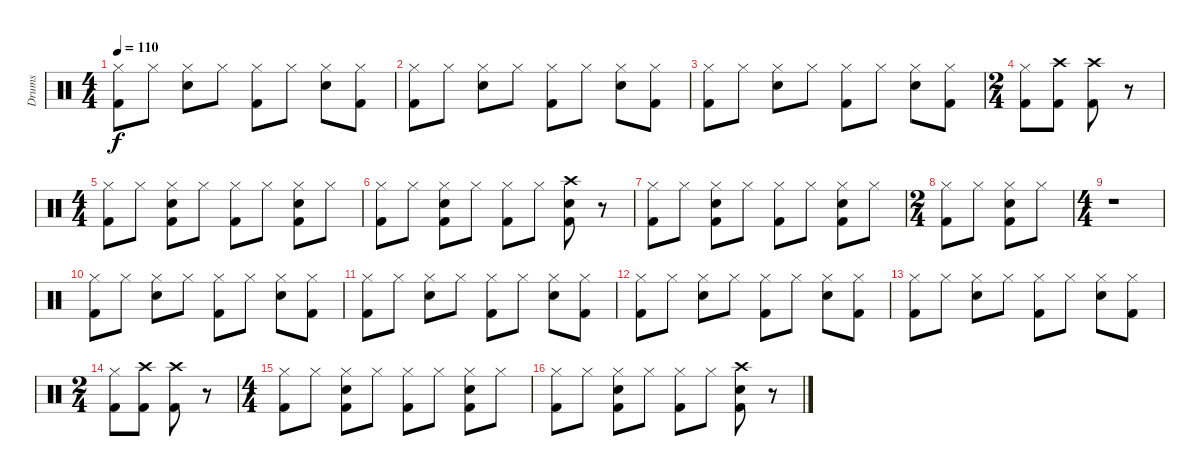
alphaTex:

\track ("Drums" "Drums") {instrument percussion}
\staff {score}
\articulation defaults
\ts (4 4)
\tempo 110
\clef neutral
\ks c
("Hi-Hat (closed)" "Kick (hit) 2").8{dy f} "Hi-Hat (closed)".8 ("Hi-Hat (closed)" "Snare (hit) 2").8 "Hi-Hat (closed)".8 ("Hi-Hat (closed)" "Kick (hit) 2").8 "Hi-Hat (closed)".8 ("Hi-Hat (closed)" "Snare (hit) 2").8 ("Hi-Hat (closed)" "Kick (hit) 2").8 |
("Hi-Hat (closed)" "Kick (hit) 2").8 "Hi-Hat (closed)".8 ("Hi-Hat (closed)" "Snare (hit) 2").8 "Hi-Hat (closed)".8 ("Hi-Hat (closed)" "Kick (hit) 2").8 "Hi-Hat (closed)".8 ("Hi-Hat (closed)" "Snare (hit) 2").8 ("Hi-Hat (closed)" "Kick (hit) 2").8 |
("Hi-Hat (closed)" "Kick (hit) 2").8 "Hi-Hat (closed)".8 ("Hi-Hat (closed)" "Snare (hit) 2").8 "Hi-Hat (closed)".8 ("Hi-Hat (closed)" "Kick (hit) 2").8 "Hi-Hat (closed)".8 ("Hi-Hat (closed)" "Snare (hit) 2").8 ("Hi-Hat (closed)" "Kick (hit) 2").8 |
\ts (2 4)
("Hi-Hat (closed)" "Kick (hit) 2").8 ("Crash high (hit)" "Kick (hit) 2").8 ("Crash high (hit)" "Kick (hit) 2").8 r.8 |
\ts (4 4)
("Hi-Hat (closed)" "Kick (hit) 2").8 "Hi-Hat (closed)".8 ("Hi-Hat (closed)" "Snare (hit) 2" "Kick (hit) 2").8 "Hi-Hat (closed)".8 ("Hi-Hat (closed)" "Kick (hit) 2").8 "Hi-Hat (closed)".8 ("Hi-Hat (closed)" "Snare (hit) 2" "Kick (hit) 2").8 "Hi-Hat (closed)".8 |
("Hi-Hat (closed)" "Kick (hit) 2").8 "Hi-Hat (closed)".8 ("Hi-Hat (closed)" "Snare (hit) 2" "Kick (hit) 2").8 "Hi-Hat (closed)".8 ("Hi-Hat (closed)" "Kick (hit) 2").8 "Hi-Hat (closed)".8 ("Crash high (hit)" "Snare (hit) 2" "Kick (hit) 2").8 r.8 |
("Hi-Hat (closed)" "Kick (hit) 2").8 "Hi-Hat (closed)".8 ("Hi-Hat (closed)" "Snare (hit) 2" "Kick (hit) 2").8 "Hi-Hat (closed)".8 ("Hi-Hat (closed)" "Kick (hit) 2").8 "Hi-Hat (closed)".8 ("Hi-Hat (closed)" "Snare (hit) 2" "Kick (hit) 2").8 "Hi-Hat (closed)".8 |
\ts (2 4)
("Hi-Hat (closed)" "Kick (hit) 2").8 "Hi-Hat (closed)".8 ("Hi-Hat (closed)" "Snare (hit) 2" "Kick (hit) 2").8 "Hi-Hat (closed)".8 |
\ts (4 4)
r.1 |
("Hi-Hat (closed)" "Kick (hit) 2").8 "Hi-Hat (closed)".8 ("Hi-Hat (closed)" "Snare (hit) 2").8 "Hi-Hat (closed)".8 ("Hi-Hat (closed)" "Kick (hit) 2").8 "Hi-Hat (closed)".8 ("Hi-Hat (closed)" "Snare (hit) 2").8 ("Hi-Hat (closed)" "Kick (hit) 2").8 |
("Hi-Hat (closed)" "Kick (hit) 2").8 "Hi-Hat (closed)".8 ("Hi-Hat (closed)" "Snare (hit) 2").8 "Hi-Hat (closed)".8 ("Hi-Hat (closed)" "Kick (hit) 2").8 "Hi-Hat (closed)".8 ("Hi-Hat (closed)" "Snare (hit) 2").8 ("Hi-Hat (closed)" "Kick (hit) 2").8 |
("Hi-Hat (closed)" "Kick (hit) 2").8 "Hi-Hat (closed)".8 ("Hi-Hat (closed)" "Snare (hit) 2").8 "Hi-Hat (closed)".8 ("Hi-Hat (closed)" "Kick (hit) 2").8 "Hi-Hat (closed)".8 ("Hi-Hat (closed)" "Snare (hit) 2").8 ("Hi-Hat (closed)" "Kick (hit) 2").8 |
("Hi-Hat (closed)" "Kick (hit) 2").8 "Hi-Hat (closed)".8 ("Hi-Hat (closed)" "Snare (hit) 2").8 "Hi-Hat (closed)".8 ("Hi-Hat (closed)" "Kick (hit) 2").8 "Hi-Hat (closed)".8 ("Hi-Hat (closed)" "Snare (hit) 2").8 ("Hi-Hat (closed)" "Kick (hit) 2").8 |
\ts (2 4)
("Hi-Hat (closed)" "Kick (hit) 2").8 ("Crash high (hit)" "Kick (hit) 2").8 ("Crash high (hit)" "Kick (hit) 2").8 r.8 |
\ts (4 4)
("Hi-Hat (closed)" "Kick (hit) 2").8 "Hi-Hat (closed)".8 ("Hi-Hat (closed)" "Snare (hit) 2" "Kick (hit) 2").8 "Hi-Hat (closed)".8 ("Hi-Hat (closed)" "Kick (hit) 2").8 "Hi-Hat (closed)".8 ("Hi-Hat (closed)" "Snare (hit) 2" "Kick (hit) 2").8 "Hi-Hat (closed)".8 |
("Hi-Hat (closed)" "Kick (hit) 2").8 "Hi-Hat (closed)".8 ("Hi-Hat (closed)" "Snare (hit) 2" "Kick (hit) 2").8 "Hi-Hat (closed)".8 ("Hi-Hat (closed)" "Kick (hit) 2").8 "Hi-Hat (closed)".8 ("Crash high (hit)" "Snare (hit) 2" "Kick (hit) 2").8 r.8
